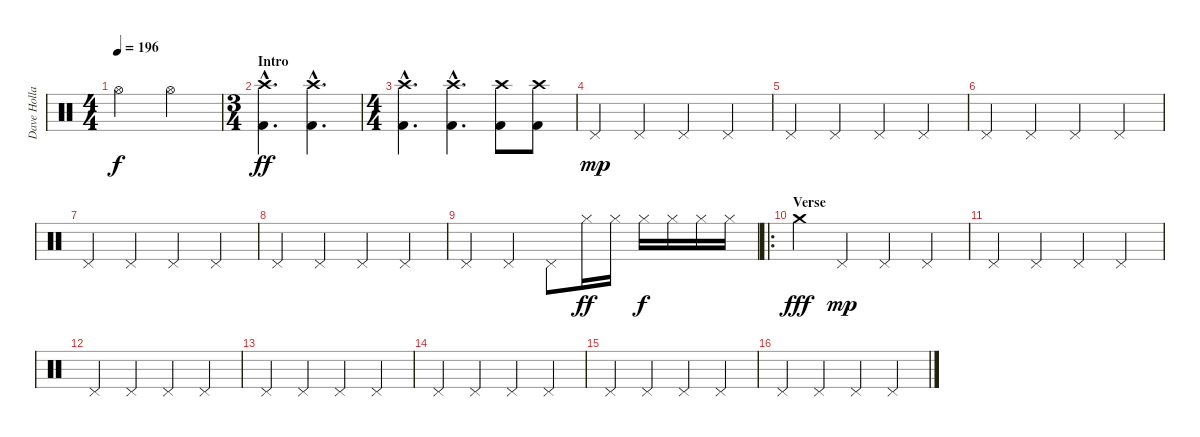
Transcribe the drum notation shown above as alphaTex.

\track ("Dave Holland" "Dave Holla") {instrument percussion}
\staff {score}
\articulation defaults
\ts (4 4)
\tempo 196
\clef neutral
\ks c "Hi-Hat (open)".2{dy f} "Hi-Hat (open)".2
|
\ts (3 4)
\section ("" "Intro")
("Crash high (hit)"{hac} "Kick (hit) 2"{hac}).4{d dy ff} ("Crash high (hit)"{hac} "Kick (hit) 2"{hac}).4{d} |
\ts (4 4)
("Crash high (hit)"{hac} "Kick (hit) 2"{hac}).4{d} ("Crash high (hit)"{hac} "Kick (hit) 2"{hac}).4{d} ("Crash high (hit)" "Kick (hit) 2").8 ("Crash high (hit)" "Kick (hit) 2").8 |
"Pedal Hi-Hat (hit)".4{dy mp} "Pedal Hi-Hat (hit)".4 "Pedal Hi-Hat (hit)".4 "Pedal Hi-Hat (hit)".4 |
"Pedal Hi-Hat (hit)".4 "Pedal Hi-Hat (hit)".4 "Pedal Hi-Hat (hit)".4 "Pedal Hi-Hat (hit)".4 |
"Pedal Hi-Hat (hit)".4 "Pedal Hi-Hat (hit)".4 "Pedal Hi-Hat (hit)".4 "Pedal Hi-Hat (hit)".4 |
"Pedal Hi-Hat (hit)".4 "Pedal Hi-Hat (hit)".4 "Pedal Hi-Hat (hit)".4 "Pedal Hi-Hat (hit)".4 |
"Pedal Hi-Hat (hit)".4 "Pedal Hi-Hat (hit)".4 "Pedal Hi-Hat (hit)".4 "Pedal Hi-Hat (hit)".4 |
"Pedal Hi-Hat (hit)".4 "Pedal Hi-Hat (hit)".4 "Pedal Hi-Hat (hit)".8 "Hi-Hat (closed)".16{dy ff} "Hi-Hat (closed)".16 "Hi-Hat (closed)".16{dy f} "Hi-Hat (closed)".16 "Hi-Hat (closed)".16 "Hi-Hat (closed)".16 |
\ro
\section ("" "Verse")
"Crash medium (hit)".4{dy fff} "Pedal Hi-Hat (hit)".4{dy mp} "Pedal Hi-Hat (hit)".4 "Pedal Hi-Hat (hit)".4 |
"Pedal Hi-Hat (hit)".4 "Pedal Hi-Hat (hit)".4 "Pedal Hi-Hat (hit)".4 "Pedal Hi-Hat (hit)".4 |
"Pedal Hi-Hat (hit)".4 "Pedal Hi-Hat (hit)".4 "Pedal Hi-Hat (hit)".4 "Pedal Hi-Hat (hit)".4 |
"Pedal Hi-Hat (hit)".4 "Pedal Hi-Hat (hit)".4 "Pedal Hi-Hat (hit)".4 "Pedal Hi-Hat (hit)".4 |
"Pedal Hi-Hat (hit)".4 "Pedal Hi-Hat (hit)".4 "Pedal Hi-Hat (hit)".4 "Pedal Hi-Hat (hit)".4 |
"Pedal Hi-Hat (hit)".4 "Pedal Hi-Hat (hit)".4 "Pedal Hi-Hat (hit)".4 "Pedal Hi-Hat (hit)".4 |
"Pedal Hi-Hat (hit)".4 "Pedal Hi-Hat (hit)".4 "Pedal Hi-Hat (hit)".4 "Pedal Hi-Hat (hit)".4
